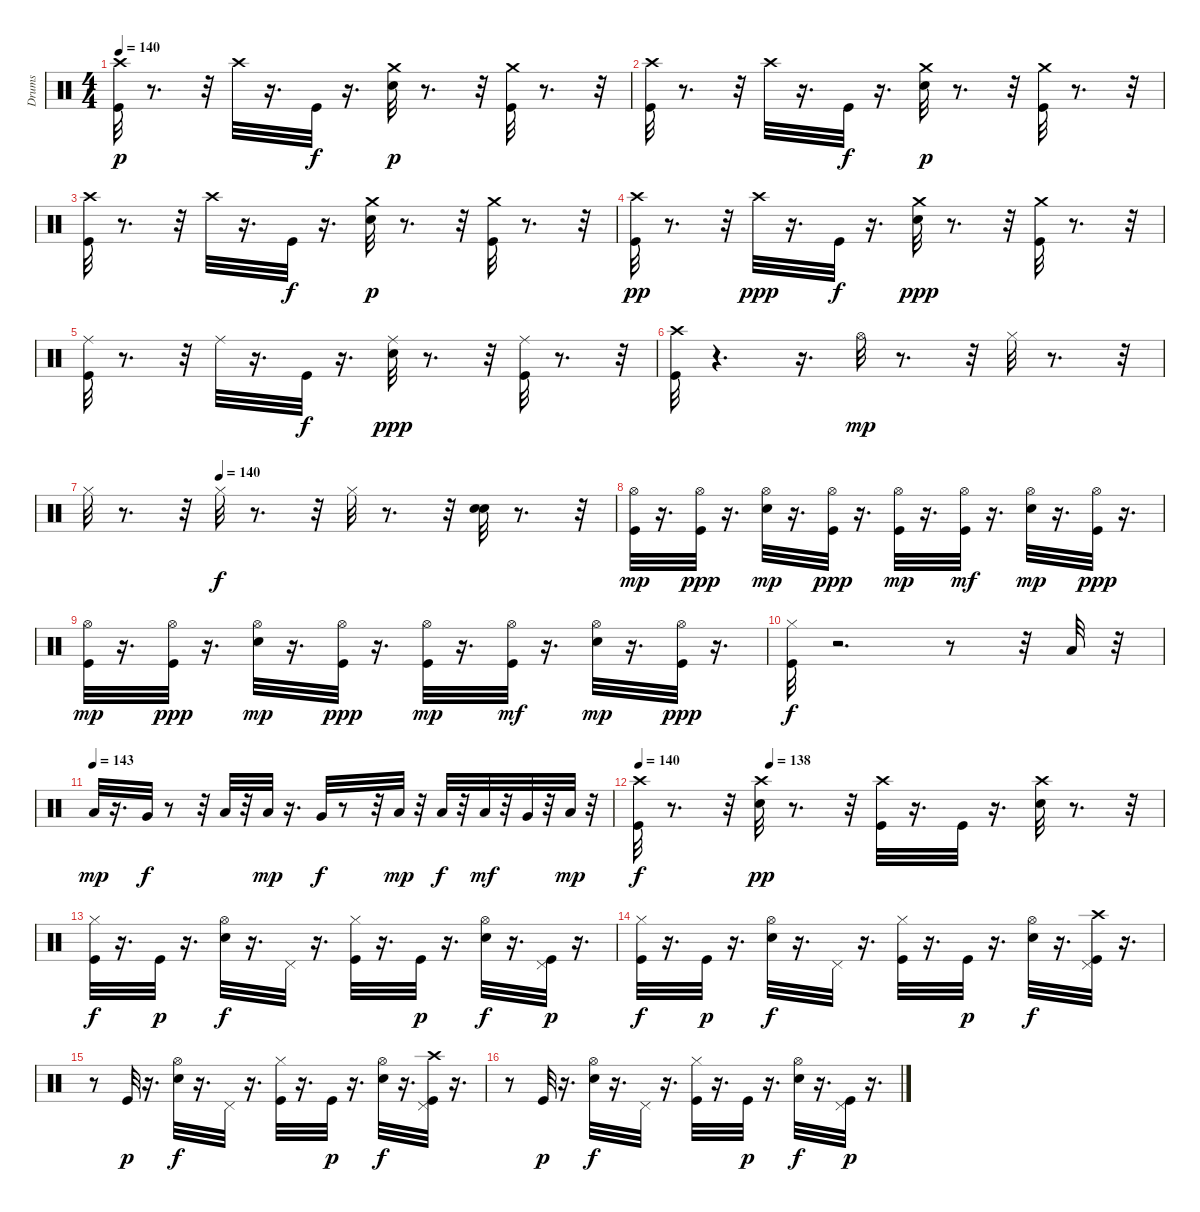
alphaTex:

\track ("Drums" "Drums") {instrument percussion}
\staff {score}
\articulation defaults
\ts (4 4)
\tempo 140
\clef neutral
\ks c
("Kick (hit)" "Crash high (hit)").32{dy p} r.8{d} r.32 "Crash high (hit)".32 r.16{d} "Kick (hit)".32{dy f} r.16{d} ("Snare (hit) 2" "Crash medium (hit)").32{dy p} r.8{d} r.32 ("Kick (hit)" "Crash medium (hit)").32 r.8{d} r.32 |
("Kick (hit)" "Crash high (hit)").32 r.8{d} r.32 "Crash high (hit)".32 r.16{d} "Kick (hit)".32{dy f} r.16{d} ("Snare (hit) 2" "Crash medium (hit)").32{dy p} r.8{d} r.32 ("Kick (hit)" "Crash medium (hit)").32 r.8{d} r.32 |
("Kick (hit)" "Crash high (hit)").32 r.8{d} r.32 "Crash high (hit)".32 r.16{d} "Kick (hit)".32{dy f} r.16{d} ("Snare (hit) 2" "Crash medium (hit)").32{dy p} r.8{d} r.32 ("Kick (hit)" "Crash medium (hit)").32 r.8{d} r.32 |
("Kick (hit)" "Crash high (hit)").32{dy pp} r.8{d} r.32 "Crash high (hit)".32{dy ppp} r.16{d} "Kick (hit)".32{dy f} r.16{d} ("Snare (hit) 2" "Crash medium (hit)").32{dy ppp} r.8{d} r.32 ("Kick (hit)" "Crash medium (hit)").32 r.8{d} r.32 |
("Ride (middle)" "Kick (hit)").32 r.8{d} r.32 "Ride (middle)".32 r.16{d} "Kick (hit)".32{dy f} r.16{d} ("Ride (middle)" "Snare (hit) 2").32{dy ppp} r.8{d} r.32 ("Ride (middle)" "Kick (hit)").32 r.8{d} r.32 |
("Crash high (hit)" "Kick (hit)").32 r.4{d} r.16{d} "Hi-Hat (open)".32{dy mp} r.8{d} r.32 "Hi-Hat (closed)".32 r.8{d} r.32 |
\tempo (140 0.25)
"Hi-Hat (closed)".32 r.8{d} r.32 "Hi-Hat (closed)".32{dy f} r.8{d} r.32 "Hi-Hat (closed)".32 r.8{d} r.32 ("Electric Snare (hit)" "Snare (hit) 2").32 r.8{d} r.32 |
("Hi-Hat (open)" "Kick (hit)").32{dy mp} r.16{d} ("Kick (hit)" "Hi-Hat (open)").32{dy ppp} r.16{d} ("Hi-Hat (open)" "Snare (hit) 2").32{dy mp} r.16{d} ("Kick (hit)" "Hi-Hat (open)").32{dy ppp} r.16{d} ("Hi-Hat (open)" "Kick (hit)").32{dy mp} r.16{d} ("Hi-Hat (open)" "Kick (hit)").32{dy mf} r.16{d} ("Hi-Hat (open)" "Snare (hit) 2").32{dy mp} r.16{d} ("Kick (hit)" "Hi-Hat (open)").32{dy ppp} r.16{d} |
("Hi-Hat (open)" "Kick (hit)").32{dy mp} r.16{d} ("Kick (hit)" "Hi-Hat (open)").32{dy ppp} r.16{d} ("Hi-Hat (open)" "Snare (hit) 2").32{dy mp} r.16{d} ("Kick (hit)" "Hi-Hat (open)").32{dy ppp} r.16{d} ("Hi-Hat (open)" "Kick (hit)").32{dy mp} r.16{d} ("Hi-Hat (open)" "Kick (hit)").32{dy mf} r.16{d} ("Hi-Hat (open)" "Snare (hit) 2").32{dy mp} r.16{d} ("Kick (hit)" "Hi-Hat (open)").32{dy ppp} r.16{d} |
("Kick (hit)" "Hi-Hat (closed)").32{dy f} r.2{d} r.8 r.32 "Low Floor Tom (hit)".32 r.32 |
\tempo (143)
"Low Floor Tom (hit)".32{dy mp} r.16{d} "Very Low Tom (hit)".32{dy f} r.8 r.32 "Low Floor Tom (hit)".32 r.32 "Low Floor Tom (hit)".32{dy mp} r.16{d} "Very Low Tom (hit)".32{dy f} r.8 r.32 "Low Floor Tom (hit)".32{dy mp} r.32 "Low Tom (hit)".32{dy f} r.32 "Low Tom (hit)".32{dy mf} r.32 "Very Low Tom (hit)".32 r.32 "Low Floor Tom (hit)".32{dy mp} r.32 |
\tempo 140
\tempo (138 0.25)
("Crash high (hit)" "Kick (hit)").32{dy f} r.8{d} r.32 ("Snare (hit) 2" "Crash high (hit)").32{dy pp} r.8{d} r.32 ("Kick (hit)" "Crash high (hit)").32 r.16{d} "Kick (hit)".32 r.16{d} ("Snare (hit) 2" "Crash high (hit)").32 r.8{d} r.32 |
("Hi-Hat (closed)" "Kick (hit)").32{dy f} r.16{d} "Kick (hit)".32{dy p} r.16{d} ("Hi-Hat (open)" "Snare (hit) 2").32{dy f} r.16{d} "Pedal Hi-Hat (hit)".32 r.16{d} ("Kick (hit)" "Hi-Hat (closed)").32 r.16{d} "Kick (hit)".32{dy p} r.16{d} ("Snare (hit) 2" "Hi-Hat (open)").32{dy f} r.16{d} ("Kick (hit)" "Pedal Hi-Hat (hit)").32{dy p} r.16{d} |
("Hi-Hat (closed)" "Kick (hit)").32{dy f} r.16{d} "Kick (hit)".32{dy p} r.16{d} ("Hi-Hat (open)" "Snare (hit) 2").32{dy f} r.16{d} "Pedal Hi-Hat (hit)".32 r.16{d} ("Kick (hit)" "Hi-Hat (closed)").32 r.16{d} "Kick (hit)".32{dy p} r.16{d} ("Snare (hit) 2" "Hi-Hat (open)").32{dy f} r.16{d} ("Kick (hit)" "Pedal Hi-Hat (hit)" "Crash high (hit)").32 r.16{d} |
r.8 "Kick (hit)".32{dy p} r.16{d} ("Hi-Hat (open)" "Snare (hit) 2").32{dy f} r.16{d} "Pedal Hi-Hat (hit)".32 r.16{d} ("Kick (hit)" "Hi-Hat (closed)").32 r.16{d} "Kick (hit)".32{dy p} r.16{d} ("Snare (hit) 2" "Hi-Hat (open)").32{dy f} r.16{d} ("Kick (hit)" "Pedal Hi-Hat (hit)" "Crash high (hit)").32 r.16{d} |
r.8 "Kick (hit)".32{dy p} r.16{d} ("Hi-Hat (open)" "Snare (hit) 2").32{dy f} r.16{d} "Pedal Hi-Hat (hit)".32 r.16{d} ("Kick (hit)" "Hi-Hat (closed)").32 r.16{d} "Kick (hit)".32{dy p} r.16{d} ("Snare (hit) 2" "Hi-Hat (open)").32{dy f} r.16{d} ("Kick (hit)" "Pedal Hi-Hat (hit)").32{dy p} r.16{d}
